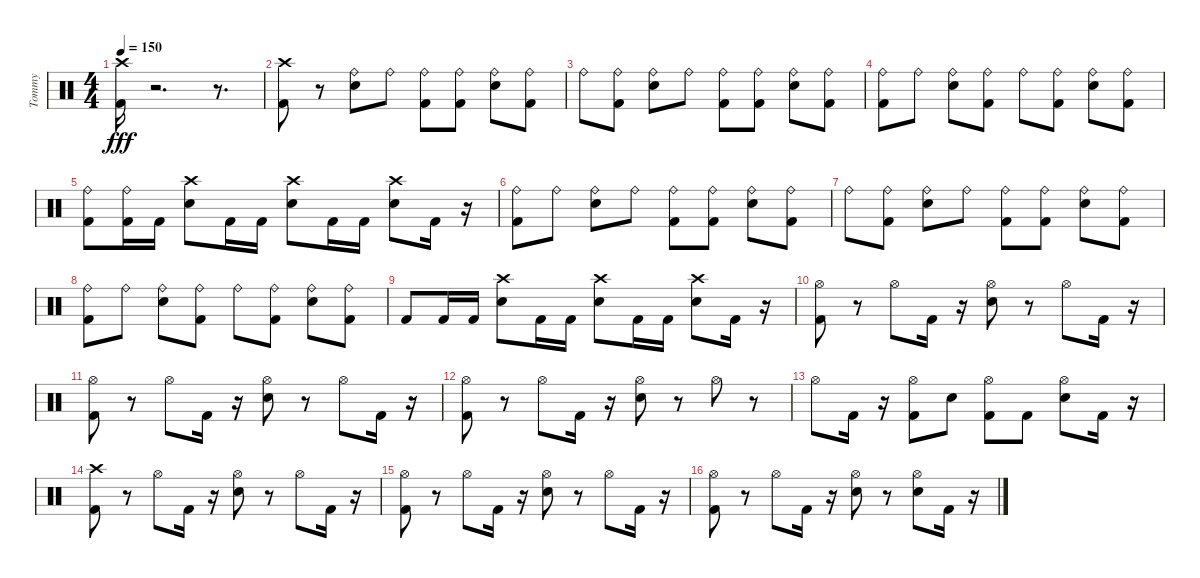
\track ("Tommy" "Tommy") {instrument percussion}
\staff {score}
\articulation defaults
\ts (4 4)
\tempo 150
\clef neutral
\ks c
("Crash high (hit)" "Kick (hit) 2").16{dy fff} r.2{d} r.8{d} |
("Crash high (hit)" "Kick (hit) 2").8 r.8 ("Ride (bell)" "Snare (hit) 2").8 "Ride (bell)".8 ("Ride (bell)" "Kick (hit) 2").8 ("Ride (bell)" "Kick (hit) 2").8 ("Ride (bell)" "Snare (hit) 2").8 ("Ride (bell)" "Kick (hit) 2").8 |
"Ride (bell)".8 ("Ride (bell)" "Kick (hit) 2").8 ("Ride (bell)" "Snare (hit) 2").8 "Ride (bell)".8 ("Ride (bell)" "Kick (hit) 2").8 ("Ride (bell)" "Kick (hit) 2").8 ("Ride (bell)" "Snare (hit) 2").8 ("Ride (bell)" "Kick (hit) 2").8 |
("Ride (bell)" "Kick (hit) 2").8 "Ride (bell)".8 ("Ride (bell)" "Snare (hit) 2").8 ("Ride (bell)" "Kick (hit) 2").8 "Ride (bell)".8 ("Ride (bell)" "Kick (hit) 2").8 ("Ride (bell)" "Snare (hit) 2").8 ("Ride (bell)" "Kick (hit) 2").8 |
("Ride (bell)" "Kick (hit) 2").8 ("Ride (bell)" "Kick (hit) 2").16 "Kick (hit) 2".16 ("Snare (hit) 2" "Crash high (hit)").8 "Kick (hit) 2".16 "Kick (hit) 2".16 ("Snare (hit) 2" "Crash high (hit)").8 "Kick (hit) 2".16 "Kick (hit) 2".16 ("Snare (hit) 2" "Crash high (hit)").8 "Kick (hit) 2".16 r.16 |
("Ride (bell)" "Kick (hit) 2").8 "Ride (bell)".8 ("Ride (bell)" "Snare (hit) 2").8 "Ride (bell)".8 ("Ride (bell)" "Kick (hit) 2").8 ("Ride (bell)" "Kick (hit) 2").8 ("Ride (bell)" "Snare (hit) 2").8 ("Ride (bell)" "Kick (hit) 2").8 |
"Ride (bell)".8 ("Ride (bell)" "Kick (hit) 2").8 ("Ride (bell)" "Snare (hit) 2").8 "Ride (bell)".8 ("Ride (bell)" "Kick (hit) 2").8 ("Ride (bell)" "Kick (hit) 2").8 ("Ride (bell)" "Snare (hit) 2").8 ("Ride (bell)" "Kick (hit) 2").8 |
("Kick (hit) 2" "Ride (bell)").8 "Ride (bell)".8 ("Snare (hit) 2" "Ride (bell)").8 ("Kick (hit) 2" "Ride (bell)").8 "Ride (bell)".8 ("Kick (hit) 2" "Ride (bell)").8 ("Snare (hit) 2" "Ride (bell)").8 ("Kick (hit) 2" "Ride (bell)").8 |
"Kick (hit) 2".8 "Kick (hit) 2".16 "Kick (hit) 2".16 ("Snare (hit) 2" "Crash high (hit)").8 "Kick (hit) 2".16 "Kick (hit) 2".16 ("Snare (hit) 2" "Crash high (hit)").8 "Kick (hit) 2".16 "Kick (hit) 2".16 ("Snare (hit) 2" "Crash high (hit)").8 "Kick (hit) 2".16 r.16 |
("Kick (hit) 2" "Hi-Hat (open)").8 r.8 "Hi-Hat (open)".8 "Kick (hit) 2".16 r.16 ("Snare (hit) 2" "Hi-Hat (open)").8 r.8 "Hi-Hat (open)".8 "Kick (hit) 2".16 r.16 |
("Kick (hit) 2" "Hi-Hat (open)").8 r.8 "Hi-Hat (open)".8 "Kick (hit) 2".16 r.16 ("Snare (hit) 2" "Hi-Hat (open)").8 r.8 "Hi-Hat (open)".8 "Kick (hit) 2".16 r.16 |
("Kick (hit) 2" "Hi-Hat (open)").8 r.8 "Hi-Hat (open)".8 "Kick (hit) 2".16 r.16 ("Snare (hit) 2" "Hi-Hat (open)").8 r.8 "Hi-Hat (open)".8 r.8 |
"Hi-Hat (open)".8 "Kick (hit) 2".16 r.16 ("Kick (hit) 2" "Hi-Hat (open)").8 "Snare (hit) 2".8 ("Kick (hit) 2" "Hi-Hat (open)").8 "Kick (hit) 2".8 ("Snare (hit) 2" "Hi-Hat (open)").8 "Kick (hit) 2".16 r.16 |
("Kick (hit) 2" "Crash high (hit)").8 r.8 "Hi-Hat (open)".8 "Kick (hit) 2".16 r.16 ("Snare (hit) 2" "Hi-Hat (open)").8 r.8 "Hi-Hat (open)".8 "Kick (hit) 2".16 r.16 |
("Kick (hit) 2" "Hi-Hat (open)").8 r.8 "Hi-Hat (open)".8 "Kick (hit) 2".16 r.16 ("Snare (hit) 2" "Hi-Hat (open)").8 r.8 "Hi-Hat (open)".8 "Kick (hit) 2".16 r.16 |
("Kick (hit) 2" "Hi-Hat (open)").8 r.8 "Hi-Hat (open)".8 "Kick (hit) 2".16 r.16 ("Snare (hit) 2" "Hi-Hat (open)").8 r.8 ("Hi-Hat (open)" "Snare (hit) 2").8 "Kick (hit) 2".16 r.16
